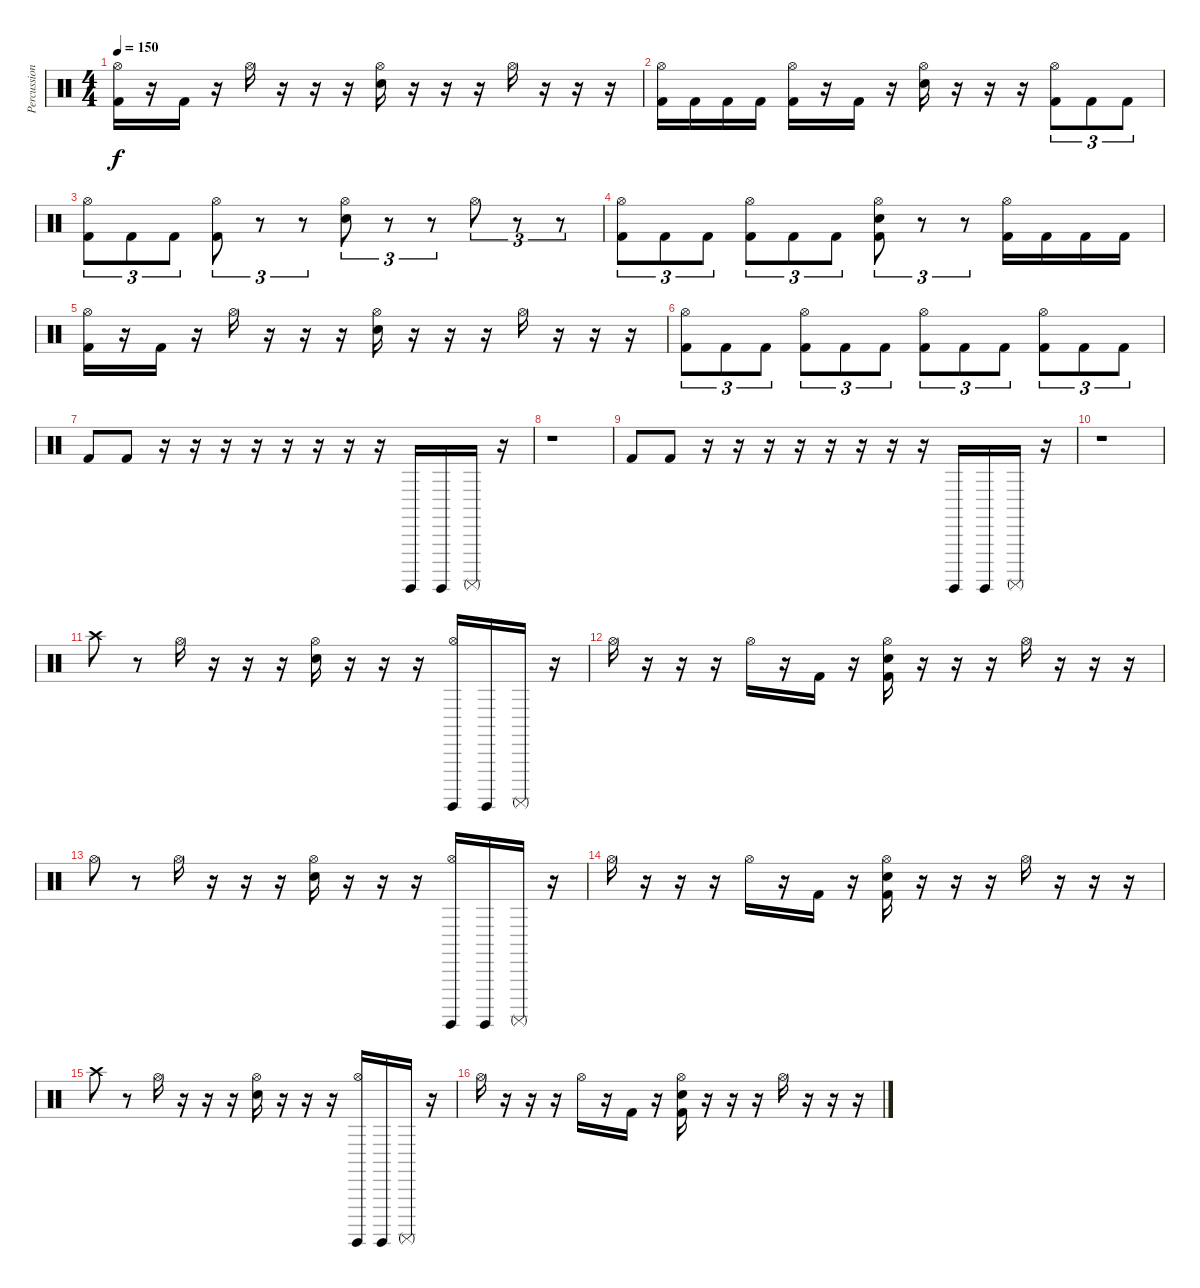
\track ("Percussions" "Percussion") {instrument percussion}
\staff {score}
\articulation defaults
\ts (4 4)
\tempo 150
\clef neutral
\ks c
("Hi-Hat (open)" "Kick (hit) 2").16{dy f} r.16 "Kick (hit) 2".16 r.16 "Hi-Hat (open)".16 r.16 r.16 r.16 ("Hi-Hat (open)" "Electric Snare (hit)").16 r.16 r.16 r.16 "Hi-Hat (open)".16 r.16 r.16 r.16 |
("Hi-Hat (open)" "Kick (hit) 2").16 "Kick (hit) 2".16 "Kick (hit) 2".16 "Kick (hit) 2".16 ("Hi-Hat (open)" "Kick (hit) 2").16 r.16 "Kick (hit) 2".16 r.16 ("Hi-Hat (open)" "Electric Snare (hit)").16 r.16 r.16 r.16 ("Hi-Hat (open)" "Kick (hit) 2").8{tu (3 2)} "Kick (hit) 2".8{tu (3 2)} "Kick (hit) 2".8{tu (3 2)} |
("Hi-Hat (open)" "Kick (hit) 2").8{tu (3 2)} "Kick (hit) 2".8{tu (3 2)} "Kick (hit) 2".8{tu (3 2)} ("Hi-Hat (open)" "Kick (hit) 2").8{tu (3 2)} r.8{tu (3 2)} r.8{tu (3 2)} ("Hi-Hat (open)" "Electric Snare (hit)").8{tu (3 2)} r.8{tu (3 2)} r.8{tu (3 2)} "Hi-Hat (open)".8{tu (3 2)} r.8{tu (3 2)} r.8{tu (3 2)} |
("Hi-Hat (open)" "Kick (hit) 2").8{tu (3 2)} "Kick (hit) 2".8{tu (3 2)} "Kick (hit) 2".8{tu (3 2)} ("Hi-Hat (open)" "Kick (hit) 2").8{tu (3 2)} "Kick (hit) 2".8{tu (3 2)} "Kick (hit) 2".8{tu (3 2)} ("Hi-Hat (open)" "Electric Snare (hit)" "Kick (hit) 2").8{tu (3 2)} r.8{tu (3 2)} r.8{tu (3 2)} ("Hi-Hat (open)" "Kick (hit) 2").16 "Kick (hit) 2".16 "Kick (hit) 2".16 "Kick (hit) 2".16 |
("Hi-Hat (open)" "Kick (hit) 2").16 r.16 "Kick (hit) 2".16 r.16 "Hi-Hat (open)".16 r.16 r.16 r.16 ("Hi-Hat (open)" "Electric Snare (hit)").16 r.16 r.16 r.16 "Hi-Hat (open)".16 r.16 r.16 r.16 |
("Hi-Hat (open)" "Kick (hit) 2").8{tu (3 2)} "Kick (hit) 2".8{tu (3 2)} "Kick (hit) 2".8{tu (3 2)} ("Hi-Hat (open)" "Kick (hit) 2").8{tu (3 2)} "Kick (hit) 2".8{tu (3 2)} "Kick (hit) 2".8{tu (3 2)} ("Hi-Hat (open)" "Kick (hit) 2").8{tu (3 2)} "Kick (hit) 2".8{tu (3 2)} "Kick (hit) 2".8{tu (3 2)} ("Hi-Hat (open)" "Kick (hit) 2").8{tu (3 2)} "Kick (hit) 2".8{tu (3 2)} "Kick (hit) 2".8{tu (3 2)} |
"Kick (hit) 2".8 "Kick (hit) 2".8 r.16 r.16 r.16 r.16 r.16 r.16 r.16 r.16 "Surdo (hit)".16 "Surdo (hit)".16 "Surdo (mute)".16 r.16 |
r.1 |
"Kick (hit) 2".8 "Kick (hit) 2".8 r.16 r.16 r.16 r.16 r.16 r.16 r.16 r.16 "Surdo (hit)".16 "Surdo (hit)".16 "Surdo (mute)".16 r.16 |
r.1 |
"Crash high (hit)".8 r.8 "Hi-Hat (open)".16 r.16 r.16 r.16 ("Hi-Hat (open)" "Electric Snare (hit)").16 r.16 r.16 r.16 ("Hi-Hat (open)" "Surdo (hit)").16 "Surdo (hit)".16 "Surdo (mute)".16 r.16 |
"Hi-Hat (open)".16 r.16 r.16 r.16 "Hi-Hat (open)".16 r.16 "Kick (hit) 2".16 r.16 ("Hi-Hat (open)" "Electric Snare (hit)" "Kick (hit) 2").16 r.16 r.16 r.16 "Hi-Hat (open)".16 r.16 r.16 r.16 |
"Hi-Hat (open)".8 r.8 "Hi-Hat (open)".16 r.16 r.16 r.16 ("Hi-Hat (open)" "Electric Snare (hit)").16 r.16 r.16 r.16 ("Hi-Hat (open)" "Surdo (hit)").16 "Surdo (hit)".16 "Surdo (mute)".16 r.16 |
"Hi-Hat (open)".16 r.16 r.16 r.16 "Hi-Hat (open)".16 r.16 "Kick (hit) 2".16 r.16 ("Hi-Hat (open)" "Electric Snare (hit)" "Kick (hit) 2").16 r.16 r.16 r.16 "Hi-Hat (open)".16 r.16 r.16 r.16 |
"Crash high (hit)".8 r.8 "Hi-Hat (open)".16 r.16 r.16 r.16 ("Hi-Hat (open)" "Electric Snare (hit)").16 r.16 r.16 r.16 ("Hi-Hat (open)" "Surdo (hit)").16 "Surdo (hit)".16 "Surdo (mute)".16 r.16 |
"Hi-Hat (open)".16 r.16 r.16 r.16 "Hi-Hat (open)".16 r.16 "Kick (hit) 2".16 r.16 ("Hi-Hat (open)" "Electric Snare (hit)" "Kick (hit) 2").16 r.16 r.16 r.16 "Hi-Hat (open)".16 r.16 r.16 r.16
